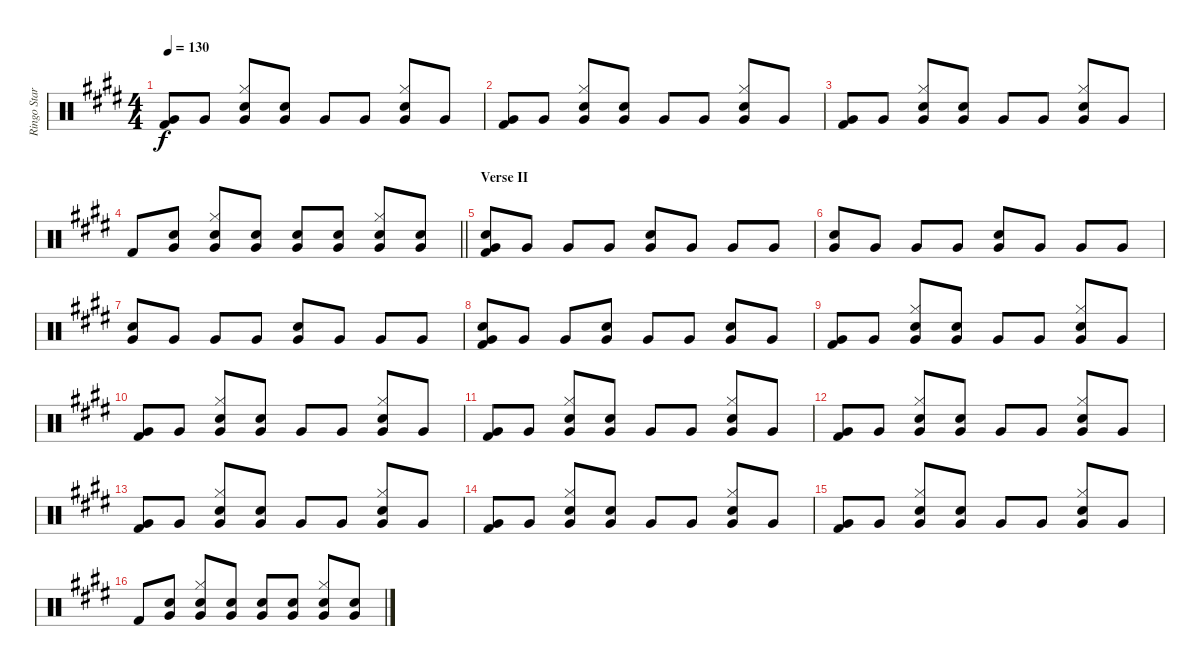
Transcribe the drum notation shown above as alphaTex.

\track ("Ringo Starr Drums" "Ringo Star") {instrument percussion}
\staff {score}
\articulation defaults
\ts (4 4)
\tempo 130
\clef neutral
\ks e
("Very Low Tom (hit)" "Kick (hit) 2").8{dy f} "Very Low Tom (hit)".8 ("Hi-Hat (closed)" "Very Low Tom (hit)" "Snare (hit) 2").8 ("Very Low Tom (hit)" "Snare (hit) 2").8 "Very Low Tom (hit)".8 "Very Low Tom (hit)".8 ("Hi-Hat (closed)" "Very Low Tom (hit)" "Snare (hit) 2").8 "Very Low Tom (hit)".8 |
("Very Low Tom (hit)" "Kick (hit) 2").8 "Very Low Tom (hit)".8 ("Hi-Hat (closed)" "Very Low Tom (hit)" "Snare (hit) 2").8 ("Very Low Tom (hit)" "Snare (hit) 2").8 "Very Low Tom (hit)".8 "Very Low Tom (hit)".8 ("Hi-Hat (closed)" "Very Low Tom (hit)" "Snare (hit) 2").8 "Very Low Tom (hit)".8 |
("Very Low Tom (hit)" "Kick (hit) 2").8 "Very Low Tom (hit)".8 ("Hi-Hat (closed)" "Very Low Tom (hit)" "Snare (hit) 2").8 ("Very Low Tom (hit)" "Snare (hit) 2").8 "Very Low Tom (hit)".8 "Very Low Tom (hit)".8 ("Hi-Hat (closed)" "Very Low Tom (hit)" "Snare (hit) 2").8 "Very Low Tom (hit)".8 |
\barLineRight lightlight "Kick (hit) 2".8
("Very Low Tom (hit)" "Snare (hit) 2").8 ("Hi-Hat (closed)" "Very Low Tom (hit)" "Snare (hit) 2").8 ("Very Low Tom (hit)" "Snare (hit) 2").8 ("Very Low Tom (hit)" "Snare (hit) 2").8 ("Very Low Tom (hit)" "Snare (hit) 2").8 ("Hi-Hat (closed)" "Very Low Tom (hit)" "Snare (hit) 2").8 ("Very Low Tom (hit)" "Snare (hit) 2").8 |
\section ("" "Verse II")
("Very Low Tom (hit)" "Snare (hit) 2" "Kick (hit) 2").8 "Very Low Tom (hit)".8 "Very Low Tom (hit)".8 "Very Low Tom (hit)".8 ("Very Low Tom (hit)" "Snare (hit) 2").8 "Very Low Tom (hit)".8 "Very Low Tom (hit)".8 "Very Low Tom (hit)".8 |
("Very Low Tom (hit)" "Snare (hit) 2").8 "Very Low Tom (hit)".8 "Very Low Tom (hit)".8 "Very Low Tom (hit)".8 ("Very Low Tom (hit)" "Snare (hit) 2").8 "Very Low Tom (hit)".8 "Very Low Tom (hit)".8 "Very Low Tom (hit)".8 |
("Very Low Tom (hit)" "Snare (hit) 2").8 "Very Low Tom (hit)".8 "Very Low Tom (hit)".8 "Very Low Tom (hit)".8 ("Very Low Tom (hit)" "Snare (hit) 2").8 "Very Low Tom (hit)".8 "Very Low Tom (hit)".8 "Very Low Tom (hit)".8 |
("Very Low Tom (hit)" "Snare (hit) 2" "Kick (hit) 2").8 "Very Low Tom (hit)".8 "Very Low Tom (hit)".8 ("Very Low Tom (hit)" "Snare (hit) 2").8 "Very Low Tom (hit)".8 "Very Low Tom (hit)".8 ("Very Low Tom (hit)" "Snare (hit) 2").8 "Very Low Tom (hit)".8 |
("Very Low Tom (hit)" "Kick (hit) 2").8 "Very Low Tom (hit)".8 ("Hi-Hat (closed)" "Very Low Tom (hit)" "Snare (hit) 2").8 ("Very Low Tom (hit)" "Snare (hit) 2").8 "Very Low Tom (hit)".8 "Very Low Tom (hit)".8 ("Hi-Hat (closed)" "Very Low Tom (hit)" "Snare (hit) 2").8 "Very Low Tom (hit)".8 |
("Very Low Tom (hit)" "Kick (hit) 2").8 "Very Low Tom (hit)".8 ("Hi-Hat (closed)" "Very Low Tom (hit)" "Snare (hit) 2").8 ("Very Low Tom (hit)" "Snare (hit) 2").8 "Very Low Tom (hit)".8 "Very Low Tom (hit)".8 ("Hi-Hat (closed)" "Very Low Tom (hit)" "Snare (hit) 2").8 "Very Low Tom (hit)".8 |
("Very Low Tom (hit)" "Kick (hit) 2").8 "Very Low Tom (hit)".8 ("Hi-Hat (closed)" "Very Low Tom (hit)" "Snare (hit) 2").8 ("Very Low Tom (hit)" "Snare (hit) 2").8 "Very Low Tom (hit)".8 "Very Low Tom (hit)".8 ("Hi-Hat (closed)" "Very Low Tom (hit)" "Snare (hit) 2").8 "Very Low Tom (hit)".8 |
("Very Low Tom (hit)" "Kick (hit) 2").8 "Very Low Tom (hit)".8 ("Hi-Hat (closed)" "Very Low Tom (hit)" "Snare (hit) 2").8 ("Very Low Tom (hit)" "Snare (hit) 2").8 "Very Low Tom (hit)".8 "Very Low Tom (hit)".8 ("Hi-Hat (closed)" "Very Low Tom (hit)" "Snare (hit) 2").8 "Very Low Tom (hit)".8 |
("Very Low Tom (hit)" "Kick (hit) 2").8 "Very Low Tom (hit)".8 ("Hi-Hat (closed)" "Very Low Tom (hit)" "Snare (hit) 2").8 ("Very Low Tom (hit)" "Snare (hit) 2").8 "Very Low Tom (hit)".8 "Very Low Tom (hit)".8 ("Hi-Hat (closed)" "Very Low Tom (hit)" "Snare (hit) 2").8 "Very Low Tom (hit)".8 |
("Very Low Tom (hit)" "Kick (hit) 2").8 "Very Low Tom (hit)".8 ("Hi-Hat (closed)" "Very Low Tom (hit)" "Snare (hit) 2").8 ("Very Low Tom (hit)" "Snare (hit) 2").8 "Very Low Tom (hit)".8 "Very Low Tom (hit)".8 ("Hi-Hat (closed)" "Very Low Tom (hit)" "Snare (hit) 2").8 "Very Low Tom (hit)".8 |
("Very Low Tom (hit)" "Kick (hit) 2").8 "Very Low Tom (hit)".8 ("Hi-Hat (closed)" "Very Low Tom (hit)" "Snare (hit) 2").8 ("Very Low Tom (hit)" "Snare (hit) 2").8 "Very Low Tom (hit)".8 "Very Low Tom (hit)".8 ("Hi-Hat (closed)" "Very Low Tom (hit)" "Snare (hit) 2").8 "Very Low Tom (hit)".8 |
"Kick (hit) 2".8 ("Very Low Tom (hit)" "Snare (hit) 2").8 ("Hi-Hat (closed)" "Very Low Tom (hit)" "Snare (hit) 2").8 ("Very Low Tom (hit)" "Snare (hit) 2").8 ("Very Low Tom (hit)" "Snare (hit) 2").8 ("Very Low Tom (hit)" "Snare (hit) 2").8 ("Hi-Hat (closed)" "Very Low Tom (hit)" "Snare (hit) 2").8 ("Very Low Tom (hit)" "Snare (hit) 2").8
